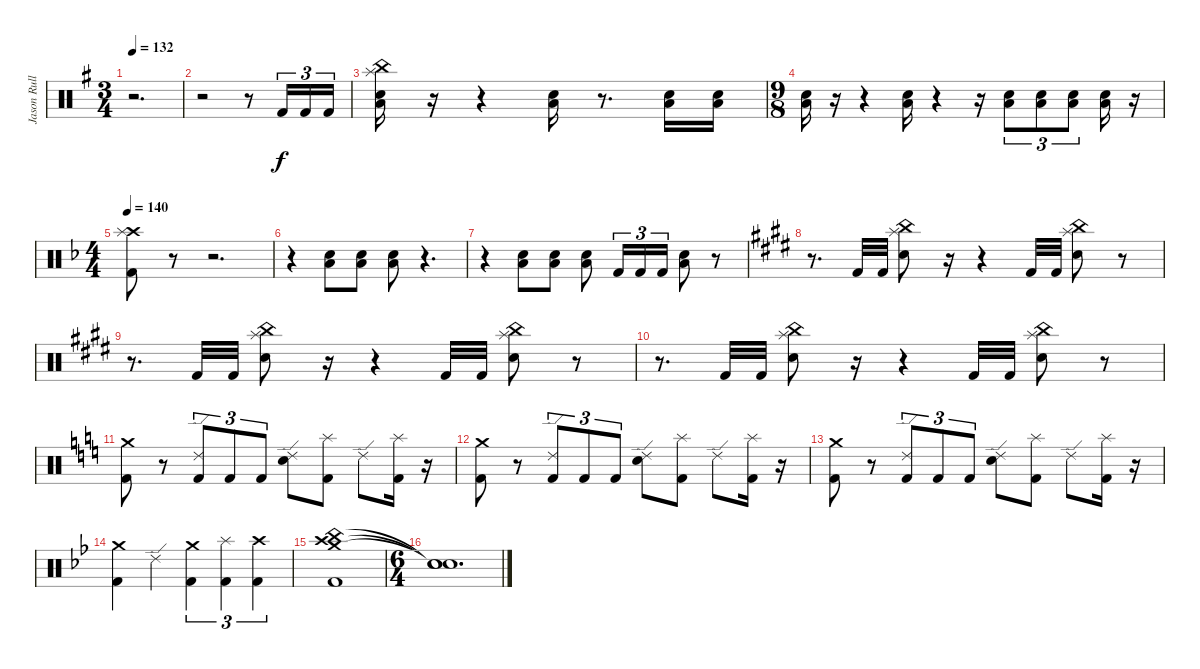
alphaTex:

\track ("Jason Rullo (drums)" "Jason Rull") {instrument percussion}
\staff {score}
\articulation defaults
\ts (3 4)
\tempo 132
\clef neutral
\ks eminor
r.2{d dy f} |
r.2 r.8 "Kick (hit) 2".16{tu (3 2) volume 15} "Kick (hit) 2".16{tu (3 2)} "Kick (hit) 2".16{tu (3 2)} |
("China (hit)" "Splash (hit)" "Low Tom (hit)" "Electric Snare (hit)").16 r.16 r.4 ("Electric Snare (hit)" "Low Tom (hit)").16 r.8{d} ("Low Tom (hit)" "Electric Snare (hit)").16 ("Low Tom (hit)" "Electric Snare (hit)").16 |
\ts (9 8)
("Low Tom (hit)" "Electric Snare (hit)").16 r.16 r.4 ("Low Tom (hit)" "Electric Snare (hit)").16 r.4 r.16 ("Low Tom (hit)" "Electric Snare (hit)").8{tu (3 2)} ("Low Tom (hit)" "Electric Snare (hit)").8{tu (3 2)} ("Low Tom (hit)" "Electric Snare (hit)").8{tu (3 2)} ("Low Tom (hit)" "Electric Snare (hit)").16 r.16 |
\ts (4 4)
\tempo 140
\ks dminor
("Crash high (hit)" "Splash (hit)" "Kick (hit) 2").8 r.8 r.2{d} |
r.4 ("Low Tom (hit)" "Electric Snare (hit)").8 ("Low Tom (hit)" "Electric Snare (hit)").8 ("Electric Snare (hit)" "Low Tom (hit)").8 r.4{d} |
r.4 ("Low Tom (hit)" "Electric Snare (hit)").8 ("Electric Snare (hit)" "Low Tom (hit)").8 ("Low Tom (hit)" "Electric Snare (hit)").8 "Kick (hit) 2".16{tu (3 2)} "Kick (hit) 2".16{tu (3 2)} "Kick (hit) 2".16{tu (3 2)} ("Low Tom (hit)" "Electric Snare (hit)").8 r.8 |
\ks c#minor
r.8{d} "Kick (hit) 2".32 "Kick (hit) 2".32 ("China (hit)" "Splash (hit)" "Electric Snare (hit)").8 r.16 r.4 "Kick (hit) 2".32 "Kick (hit) 2".32 ("Splash (hit)" "China (hit)" "Electric Snare (hit)").8 r.8 |
r.8{d} "Kick (hit) 2".32 "Kick (hit) 2".32 ("China (hit)" "Splash (hit)" "Electric Snare (hit)").8 r.16 r.4 "Kick (hit) 2".32 "Kick (hit) 2".32 ("Splash (hit)" "China (hit)" "Electric Snare (hit)").8 r.8 |
r.8{d} "Kick (hit) 2".32 "Kick (hit) 2".32 ("China (hit)" "Splash (hit)" "Electric Snare (hit)").8 r.16 r.4 "Kick (hit) 2".32 "Kick (hit) 2".32 ("Splash (hit)" "China (hit)" "Electric Snare (hit)").8 r.8 |
\ks aminor
("Crash medium (hit)" "Kick (hit) 2").8 r.8 ("Ride (edge) 2" "Kick (hit) 2").8{tu (3 2)} "Kick (hit) 2".8{tu (3 2)} "Kick (hit) 2".8{tu (3 2)} ("Electric Snare (hit)" "Ride (edge) 2").8 ("Splash (hit)" "Kick (hit) 2").8 "Ride (edge) 2".8 ("Splash (hit)" "Kick (hit) 2").16 r.16 |
("Crash medium (hit)" "Kick (hit) 2").8 r.8 ("Ride (edge) 2" "Kick (hit) 2").8{tu (3 2)} "Kick (hit) 2".8{tu (3 2)} "Kick (hit) 2".8{tu (3 2)} ("Electric Snare (hit)" "Ride (edge) 2").8 ("Splash (hit)" "Kick (hit) 2").8 "Ride (edge) 2".8 ("Splash (hit)" "Kick (hit) 2").16 r.16 |
("Crash medium (hit)" "Kick (hit) 2").8 r.8 ("Ride (edge) 2" "Kick (hit) 2").8{tu (3 2)} "Kick (hit) 2".8{tu (3 2)} "Kick (hit) 2".8{tu (3 2)} ("Electric Snare (hit)" "Ride (edge) 2").8 ("Splash (hit)" "Kick (hit) 2").8 "Ride (edge) 2".8 ("Splash (hit)" "Kick (hit) 2").16 r.16 |
\ks gminor
("Crash medium (hit)" "Kick (hit) 2").4 "Ride (edge) 2".4 ("Crash medium (hit)" "Kick (hit) 2").4{tu (3 2)} ("Splash (hit)" "Kick (hit) 2").4{tu (3 2)} ("Crash high (hit)" "Kick (hit) 2").4{tu (3 2)} |
("Crash high (hit)" "China (hit)" "Crash medium (hit)" "Kick (hit) 2").1 |
\ts (6 4)
("Snare (hit)"{t} "Snare (hit)"{t} "Snare (hit)"{t}).1{d}
